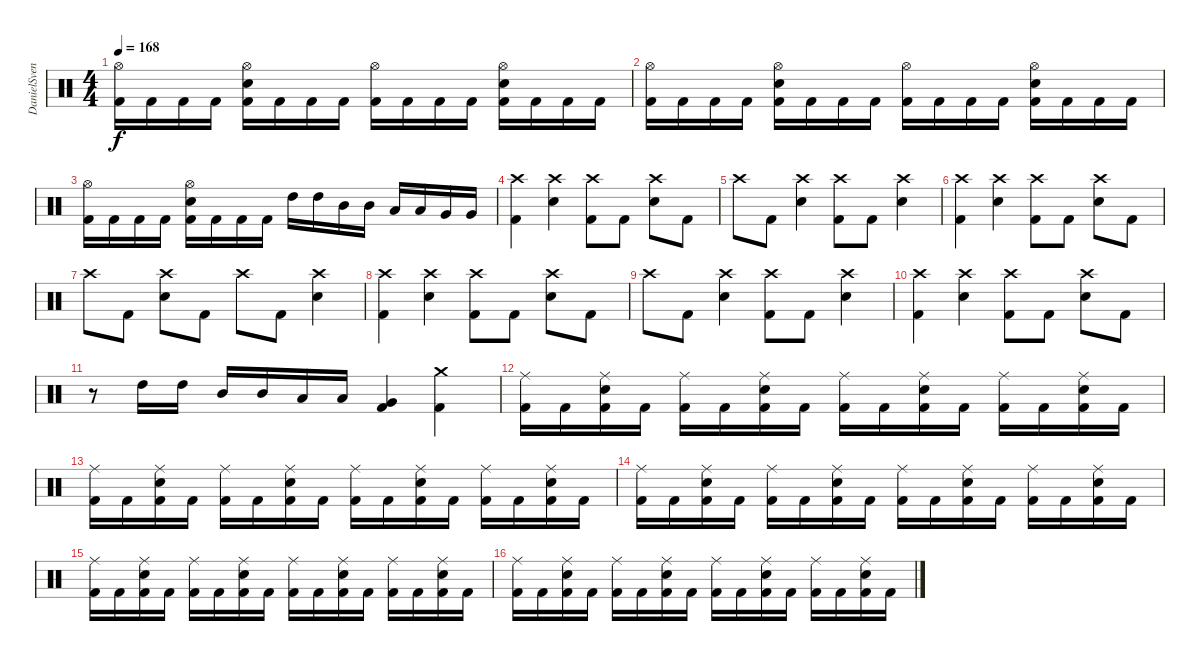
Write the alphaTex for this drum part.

\track ("DanielSvensson" "DanielSven") {instrument percussion}
\staff {score}
\articulation defaults
\ts (4 4)
\tempo 168
\clef neutral
\ks c
("Hi-Hat (open)" "Kick (hit) 2").16{dy f} "Kick (hit) 2".16 "Kick (hit) 2".16 "Kick (hit) 2".16 ("Hi-Hat (open)" "Electric Snare (hit)" "Kick (hit) 2").16 "Kick (hit) 2".16 "Kick (hit) 2".16 "Kick (hit) 2".16 ("Hi-Hat (open)" "Kick (hit) 2").16 "Kick (hit) 2".16 "Kick (hit) 2".16 "Kick (hit) 2".16 ("Hi-Hat (open)" "Electric Snare (hit)" "Kick (hit) 2").16 "Kick (hit) 2".16 "Kick (hit) 2".16 "Kick (hit) 2".16 |
("Hi-Hat (open)" "Kick (hit) 2").16 "Kick (hit) 2".16 "Kick (hit) 2".16 "Kick (hit) 2".16 ("Hi-Hat (open)" "Electric Snare (hit)" "Kick (hit) 2").16 "Kick (hit) 2".16 "Kick (hit) 2".16 "Kick (hit) 2".16 ("Hi-Hat (open)" "Kick (hit) 2").16 "Kick (hit) 2".16 "Kick (hit) 2".16 "Kick (hit) 2".16 ("Hi-Hat (open)" "Electric Snare (hit)" "Kick (hit) 2").16 "Kick (hit) 2".16 "Kick (hit) 2".16 "Kick (hit) 2".16 |
("Hi-Hat (open)" "Kick (hit) 2").16 "Kick (hit) 2".16 "Kick (hit) 2".16 "Kick (hit) 2".16 ("Hi-Hat (open)" "Electric Snare (hit)" "Kick (hit) 2").16 "Kick (hit) 2".16 "Kick (hit) 2".16 "Kick (hit) 2".16 "High Tom (hit)".16 "High Tom (hit)".16 "Mid Tom (hit)".16 "Mid Tom (hit)".16 "Low Tom (hit)".16 "Low Tom (hit)".16 "Very Low Tom (hit)".16 "Very Low Tom (hit)".16 |
("Crash high (hit)" "Kick (hit) 2").4 ("Crash high (hit)" "Electric Snare (hit)").4 ("Crash high (hit)" "Kick (hit) 2").8 "Kick (hit) 2".8 ("Crash high (hit)" "Electric Snare (hit)").8 "Kick (hit) 2".8 |
"Crash high (hit)".8 "Kick (hit) 2".8 ("Crash high (hit)" "Electric Snare (hit)").4 ("Crash high (hit)" "Kick (hit) 2").8 "Kick (hit) 2".8 ("Crash high (hit)" "Electric Snare (hit)").4 |
("Crash high (hit)" "Kick (hit) 2").4 ("Crash high (hit)" "Electric Snare (hit)").4 ("Crash high (hit)" "Kick (hit) 2").8 "Kick (hit) 2".8 ("Crash high (hit)" "Electric Snare (hit)").8 "Kick (hit) 2".8 |
"Crash high (hit)".8 "Kick (hit) 2".8 ("Crash high (hit)" "Electric Snare (hit)").8 "Kick (hit) 2".8 "Crash high (hit)".8 "Kick (hit) 2".8 ("Crash high (hit)" "Electric Snare (hit)").4 |
("Crash high (hit)" "Kick (hit) 2").4 ("Crash high (hit)" "Electric Snare (hit)").4 ("Crash high (hit)" "Kick (hit) 2").8 "Kick (hit) 2".8 ("Crash high (hit)" "Electric Snare (hit)").8 "Kick (hit) 2".8 |
"Crash high (hit)".8 "Kick (hit) 2".8 ("Crash high (hit)" "Electric Snare (hit)").4 ("Crash high (hit)" "Kick (hit) 2").8 "Kick (hit) 2".8 ("Crash high (hit)" "Electric Snare (hit)").4 |
("Crash high (hit)" "Kick (hit) 2").4 ("Crash high (hit)" "Electric Snare (hit)").4 ("Crash high (hit)" "Kick (hit) 2").8 "Kick (hit) 2".8 ("Crash high (hit)" "Electric Snare (hit)").8 "Kick (hit) 2".8 |
r.8 "High Tom (hit)".16 "High Tom (hit)".16 "Mid Tom (hit)".16 "Mid Tom (hit)".16 "Low Tom (hit)".16 "Low Tom (hit)".16 ("Very Low Tom (hit)" "Kick (hit) 2").4 ("Crash medium (hit)" "Kick (hit) 2").4 |
("Ride (middle)" "Kick (hit) 2").16 "Kick (hit) 2".16 ("Ride (middle)" "Electric Snare (hit)" "Kick (hit) 2").16 "Kick (hit) 2".16 ("Ride (middle)" "Kick (hit) 2").16 "Kick (hit) 2".16 ("Ride (middle)" "Electric Snare (hit)" "Kick (hit) 2").16 "Kick (hit) 2".16 ("Ride (middle)" "Kick (hit) 2").16 "Kick (hit) 2".16 ("Ride (middle)" "Electric Snare (hit)" "Kick (hit) 2").16 "Kick (hit) 2".16 ("Ride (middle)" "Kick (hit) 2").16 "Kick (hit) 2".16 ("Ride (middle)" "Electric Snare (hit)" "Kick (hit) 2").16 "Kick (hit) 2".16 |
("Ride (middle)" "Kick (hit) 2").16 "Kick (hit) 2".16 ("Ride (middle)" "Electric Snare (hit)" "Kick (hit) 2").16 "Kick (hit) 2".16 ("Ride (middle)" "Kick (hit) 2").16 "Kick (hit) 2".16 ("Ride (middle)" "Electric Snare (hit)" "Kick (hit) 2").16 "Kick (hit) 2".16 ("Ride (middle)" "Kick (hit) 2").16 "Kick (hit) 2".16 ("Ride (middle)" "Electric Snare (hit)" "Kick (hit) 2").16 "Kick (hit) 2".16 ("Ride (middle)" "Kick (hit) 2").16 "Kick (hit) 2".16 ("Ride (middle)" "Electric Snare (hit)" "Kick (hit) 2").16 "Kick (hit) 2".16 |
("Ride (middle)" "Kick (hit) 2").16 "Kick (hit) 2".16 ("Ride (middle)" "Electric Snare (hit)" "Kick (hit) 2").16 "Kick (hit) 2".16 ("Ride (middle)" "Kick (hit) 2").16 "Kick (hit) 2".16 ("Ride (middle)" "Electric Snare (hit)" "Kick (hit) 2").16 "Kick (hit) 2".16 ("Ride (middle)" "Kick (hit) 2").16 "Kick (hit) 2".16 ("Ride (middle)" "Electric Snare (hit)" "Kick (hit) 2").16 "Kick (hit) 2".16 ("Ride (middle)" "Kick (hit) 2").16 "Kick (hit) 2".16 ("Ride (middle)" "Electric Snare (hit)" "Kick (hit) 2").16 "Kick (hit) 2".16 |
("Ride (middle)" "Kick (hit) 2").16 "Kick (hit) 2".16 ("Ride (middle)" "Electric Snare (hit)" "Kick (hit) 2").16 "Kick (hit) 2".16 ("Ride (middle)" "Kick (hit) 2").16 "Kick (hit) 2".16 ("Ride (middle)" "Electric Snare (hit)" "Kick (hit) 2").16 "Kick (hit) 2".16 ("Ride (middle)" "Kick (hit) 2").16 "Kick (hit) 2".16 ("Ride (middle)" "Electric Snare (hit)" "Kick (hit) 2").16 "Kick (hit) 2".16 ("Ride (middle)" "Kick (hit) 2").16 "Kick (hit) 2".16 ("Ride (middle)" "Electric Snare (hit)" "Kick (hit) 2").16 "Kick (hit) 2".16 |
("Ride (middle)" "Kick (hit) 2").16 "Kick (hit) 2".16 ("Ride (middle)" "Electric Snare (hit)" "Kick (hit) 2").16 "Kick (hit) 2".16 ("Ride (middle)" "Kick (hit) 2").16 "Kick (hit) 2".16 ("Ride (middle)" "Electric Snare (hit)" "Kick (hit) 2").16 "Kick (hit) 2".16 ("Ride (middle)" "Kick (hit) 2").16 "Kick (hit) 2".16 ("Ride (middle)" "Electric Snare (hit)" "Kick (hit) 2").16 "Kick (hit) 2".16 ("Ride (middle)" "Kick (hit) 2").16 "Kick (hit) 2".16 ("Ride (middle)" "Electric Snare (hit)" "Kick (hit) 2").16 "Kick (hit) 2".16
